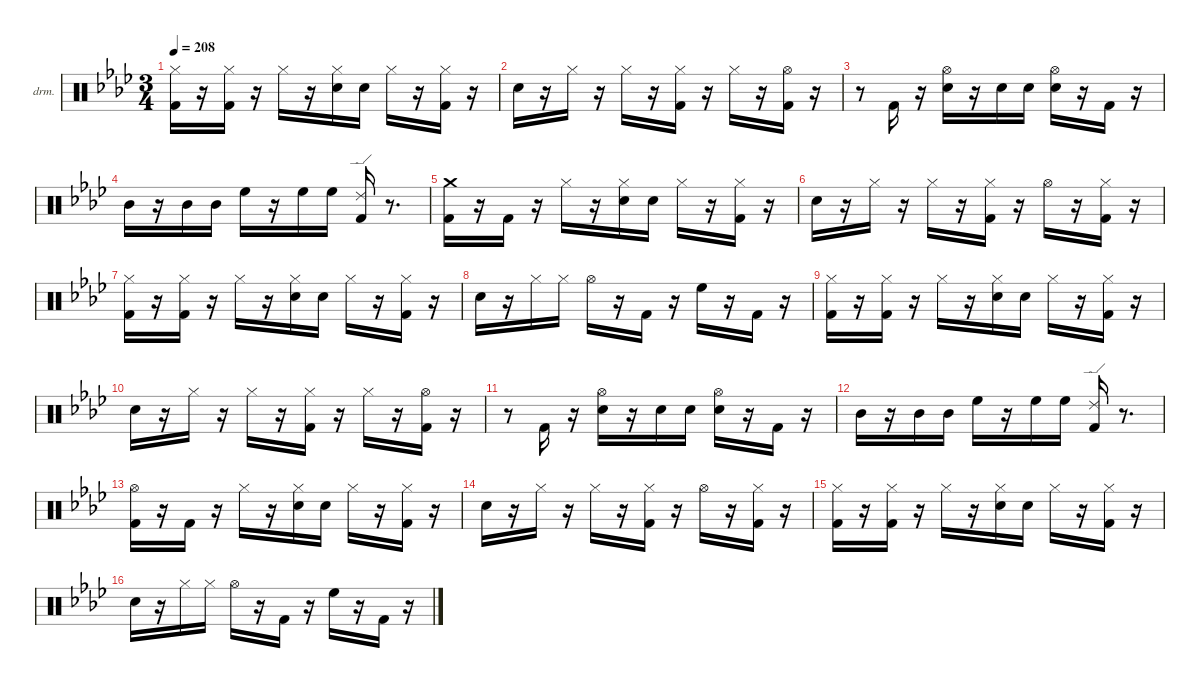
\hideDynamics
\bracketExtendMode nobrackets
\firstSystemTrackNameOrientation horizontal
\otherSystemsTrackNameOrientation horizontal
\track ("EZdrummer 3" "drm.") {instrument percussion}
\staff {score}
\articulation defaults
\ts (3 4)
\tempo 208
\clef neutral
\ks fminor
("Kick (hit) 2"{acc forcenatural} "Hi-Hat (closed)"{acc b}).16{dy fff beam Down} r.16{beam Down} ("Kick (hit) 2"{acc forcenatural} "Hi-Hat (closed)"{acc b}).16{dy mp beam Down} r.16{beam Down} "Hi-Hat (closed)"{acc b}.16{dy pp beam Down} r.16{beam Down} ("Snare (hit) 2"{acc forcenatural} "Hi-Hat (closed)"{acc b}).16{dy mf beam Down} "Snare (hit) 2"{acc forcenatural}.16{dy ppp beam Down} "Hi-Hat (closed)"{acc b}.16{dy mf beam Down} r.16{beam Down} ("Kick (hit) 2"{acc forcenatural} "Hi-Hat (closed)"{acc b}).16{dy ff beam Down} r.16{beam Down} |
"Snare (hit) 2"{acc forcenatural}.16{dy fff beam Down} r.16{beam Down} "Hi-Hat (closed)"{acc b}.16{dy mf beam Down} r.16{beam Down} "Hi-Hat (closed)"{acc b}.16{dy fff beam Down} r.16{beam Down} ("Kick (hit) 2"{acc forcenatural} "Hi-Hat (closed)"{acc b}).16{dy ff beam Down} r.16{beam Down} "Hi-Hat (closed)"{acc b}.16{dy fff beam Down} r.16{beam Down} ("Kick (hit) 2"{acc forcenatural} "Hi-Hat (open)"{acc b}).16{dy f beam Down} r.16{beam Down} |
r.8{beam Down} "Kick (hit) 2"{acc forcenatural}.16{dy mf beam Up} r.16{beam Up} ("Snare (hit) 2"{acc forcenatural} "Hi-Hat (open)"{acc b}).16{dy ff beam Down} r.16{beam Down} "Snare (hit) 2"{acc forcenatural}.16{dy pp beam Down} "Snare (hit) 2"{acc forcenatural}.16{dy ppp beam Down} ("Snare (hit) 2"{acc forcenatural} "Hi-Hat (open)"{acc b}).16{dy fff beam Down} r.16{beam Down} "Kick (hit) 2"{acc forcenatural}.16{dy ff beam Up} r.16{beam Up} |
"Mid Tom (hit)"{acc forcenatural}.16{beam Down} r.16{beam Down} "Mid Tom (hit)"{acc forcenatural}.16{beam Up} "Mid Tom (hit)"{acc forcenatural}.16{beam Up} "High Floor Tom (hit)"{acc forcenatural}.16{beam Down} r.16{beam Down} "High Floor Tom (hit)"{acc forcenatural}.16{beam Down} "High Floor Tom (hit)"{acc forcenatural}.16{beam Down} ("Kick (hit) 2"{acc forcenatural} "Ride (edge) 2"{acc forcenatural}).16{beam Up} r.8{d beam Up} |
("Kick (hit) 2"{acc forcenatural} "Crash medium (hit)"{acc forcenatural}).16{dy mf beam Down} r.16{beam Down} "Kick (hit) 2"{acc forcenatural}.16{dy fff beam Up} r.16{beam Up} "Hi-Hat (closed)"{acc b}.16{dy pp beam Down} r.16{beam Down} ("Snare (hit) 2"{acc forcenatural} "Hi-Hat (closed)"{acc b}).16{dy mf beam Down} "Snare (hit) 2"{acc forcenatural}.16{dy ppp beam Down} "Hi-Hat (closed)"{acc b}.16{dy mf beam Down} r.16{beam Down} ("Kick (hit) 2"{acc forcenatural} "Hi-Hat (closed)"{acc b}).16{dy ff beam Down} r.16{beam Down} |
"Snare (hit) 2"{acc forcenatural}.16{dy fff beam Down} r.16{beam Down} "Hi-Hat (closed)"{acc b}.16{dy mf beam Down} r.16{beam Down} "Hi-Hat (closed)"{acc b}.16{dy fff beam Down} r.16{beam Down} ("Kick (hit) 2"{acc forcenatural} "Hi-Hat (closed)"{acc b}).16{dy ff beam Down} r.16{beam Down} "Hi-Hat (open)"{acc b}.16{beam Down} r.16{beam Down} ("Kick (hit) 2"{acc forcenatural} "Hi-Hat (closed)"{acc b}).16{dy mf beam Down} r.16{beam Down} |
("Kick (hit) 2"{acc forcenatural} "Hi-Hat (closed)"{acc b}).16{dy fff beam Down} r.16{beam Down} ("Kick (hit) 2"{acc forcenatural} "Hi-Hat (closed)"{acc b}).16{dy mp beam Down} r.16{beam Down} "Hi-Hat (closed)"{acc b}.16{dy pp beam Down} r.16{beam Down} ("Snare (hit) 2"{acc forcenatural} "Hi-Hat (closed)"{acc b}).16{dy mf beam Down} "Snare (hit) 2"{acc forcenatural}.16{dy ppp beam Down} "Hi-Hat (closed)"{acc b}.16{dy mf beam Down} r.16{beam Down} ("Kick (hit) 2"{acc forcenatural} "Hi-Hat (closed)"{acc b}).16{dy ff beam Down} r.16{beam Down} |
"Snare (hit) 2"{acc forcenatural}.16{dy fff beam Down} r.16{beam Down} "Hi-Hat (closed)"{acc b}.16{dy f beam Down} "Hi-Hat (closed)"{acc b}.16{dy mf beam Down} "Hi-Hat (open)"{acc b}.16{dy fff beam Down} r.16{beam Down} "Kick (hit) 2"{acc forcenatural}.16{dy ff beam Up} r.16{beam Up} "High Floor Tom (hit)"{acc forcenatural}.16{dy f beam Down} r.16{beam Down} "Kick (hit) 2"{acc forcenatural}.16{dy mf beam Up} r.16{beam Up} |
("Kick (hit) 2"{acc forcenatural} "Hi-Hat (closed)"{acc b}).16{dy fff beam Down} r.16{beam Down} ("Kick (hit) 2"{acc forcenatural} "Hi-Hat (closed)"{acc b}).16{dy mf beam Down} r.16{beam Down} "Hi-Hat (closed)"{acc b}.16{dy pp beam Down} r.16{beam Down} ("Snare (hit) 2"{acc forcenatural} "Hi-Hat (closed)"{acc b}).16{dy mf beam Down} "Snare (hit) 2"{acc forcenatural}.16{dy ppp beam Down} "Hi-Hat (closed)"{acc b}.16{dy mf beam Down} r.16{beam Down} ("Kick (hit) 2"{acc forcenatural} "Hi-Hat (closed)"{acc b}).16{dy ff beam Down} r.16{beam Down} |
"Snare (hit) 2"{acc forcenatural}.16{dy fff beam Down} r.16{beam Down} "Hi-Hat (closed)"{acc b}.16{dy mf beam Down} r.16{beam Down} "Hi-Hat (closed)"{acc b}.16{dy fff beam Down} r.16{beam Down} ("Kick (hit) 2"{acc forcenatural} "Hi-Hat (closed)"{acc b}).16{dy ff beam Down} r.16{beam Down} "Hi-Hat (closed)"{acc b}.16{dy fff beam Down} r.16{beam Down} ("Kick (hit) 2"{acc forcenatural} "Hi-Hat (open)"{acc b}).16{dy f beam Down} r.16{beam Down} |
r.8{beam Down} "Kick (hit) 2"{acc forcenatural}.16{dy mf beam Up} r.16{beam Up} ("Snare (hit) 2"{acc forcenatural} "Hi-Hat (open)"{acc b}).16{dy ff beam Down} r.16{beam Down} "Snare (hit) 2"{acc forcenatural}.16{dy pp beam Down} "Snare (hit) 2"{acc forcenatural}.16{dy ppp beam Down} ("Snare (hit) 2"{acc forcenatural} "Hi-Hat (open)"{acc b}).16{dy fff beam Down} r.16{beam Down} "Kick (hit) 2"{acc forcenatural}.16{dy ff beam Up} r.16{beam Up} |
"Mid Tom (hit)"{acc forcenatural}.16{beam Down} r.16{beam Down} "Mid Tom (hit)"{acc forcenatural}.16{beam Up} "Mid Tom (hit)"{acc forcenatural}.16{beam Up} "High Floor Tom (hit)"{acc forcenatural}.16{beam Down} r.16{beam Down} "High Floor Tom (hit)"{acc forcenatural}.16{beam Down} "High Floor Tom (hit)"{acc forcenatural}.16{beam Down} ("Kick (hit) 2"{acc forcenatural} "Ride (edge) 2"{acc forcenatural}).16{beam Up} r.8{d beam Up} |
("Kick (hit) 2"{acc forcenatural} "Hi-Hat (open)"{acc b}).16{dy mf beam Down} r.16{beam Down} "Kick (hit) 2"{acc forcenatural}.16{dy fff beam Up} r.16{beam Up} "Hi-Hat (closed)"{acc b}.16{dy pp beam Down} r.16{beam Down} ("Snare (hit) 2"{acc forcenatural} "Hi-Hat (closed)"{acc b}).16{dy mf beam Down} "Snare (hit) 2"{acc forcenatural}.16{dy ppp beam Down} "Hi-Hat (closed)"{acc b}.16{dy mf beam Down} r.16{beam Down} ("Kick (hit) 2"{acc forcenatural} "Hi-Hat (closed)"{acc b}).16{dy ff beam Down} r.16{beam Down} |
"Snare (hit) 2"{acc forcenatural}.16{dy fff beam Down} r.16{beam Down} "Hi-Hat (closed)"{acc b}.16{dy mf beam Down} r.16{beam Down} "Hi-Hat (closed)"{acc b}.16{dy fff beam Down} r.16{beam Down} ("Kick (hit) 2"{acc forcenatural} "Hi-Hat (closed)"{acc b}).16{dy ff beam Down} r.16{beam Down} "Hi-Hat (open)"{acc b}.16{beam Down} r.16{beam Down} ("Kick (hit) 2"{acc forcenatural} "Hi-Hat (closed)"{acc b}).16{dy mf beam Down} r.16{beam Down} |
("Kick (hit) 2"{acc forcenatural} "Hi-Hat (closed)"{acc b}).16{dy fff beam Down} r.16{beam Down} ("Kick (hit) 2"{acc forcenatural} "Hi-Hat (closed)"{acc b}).16{dy mf beam Down} r.16{beam Down} "Hi-Hat (closed)"{acc b}.16{dy pp beam Down} r.16{beam Down} ("Snare (hit) 2"{acc forcenatural} "Hi-Hat (closed)"{acc b}).16{dy mf beam Down} "Snare (hit) 2"{acc forcenatural}.16{dy ppp beam Down} "Hi-Hat (closed)"{acc b}.16{dy mf beam Down} r.16{beam Down} ("Kick (hit) 2"{acc forcenatural} "Hi-Hat (closed)"{acc b}).16{dy ff beam Down} r.16{beam Down} |
"Snare (hit) 2"{acc forcenatural}.16{dy fff beam Down} r.16{beam Down} "Hi-Hat (closed)"{acc b}.16{dy f beam Down} "Hi-Hat (closed)"{acc b}.16{dy mf beam Down} "Hi-Hat (open)"{acc b}.16{dy fff beam Down} r.16{beam Down} "Kick (hit) 2"{acc forcenatural}.16{dy ff beam Up} r.16{beam Up} "High Floor Tom (hit)"{acc forcenatural}.16{dy f beam Down} r.16{beam Down} "Kick (hit) 2"{acc forcenatural}.16{dy mf beam Up} r.16{beam Up}
